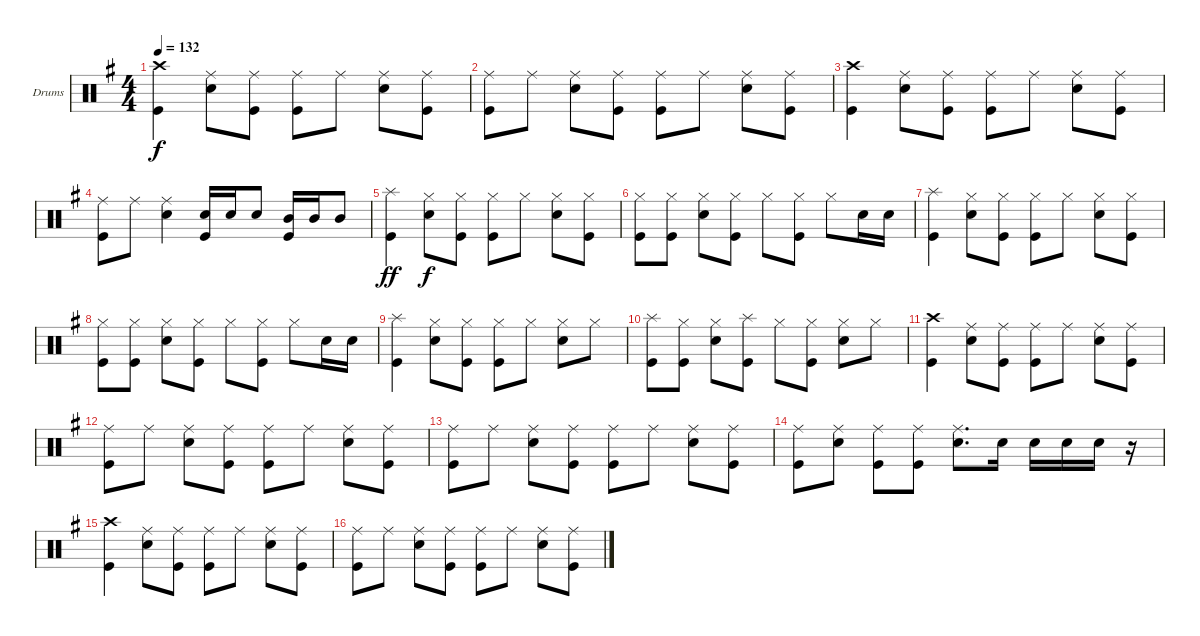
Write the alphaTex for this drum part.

\defaultSystemsLayout 4
\bracketExtendMode groupsimilarinstruments
\firstSystemTrackNameOrientation horizontal
\otherSystemsTrackNameOrientation horizontal
\track ("Drumkit" "Drums") {instrument percussion}
\staff {score}
\articulation defaults
\ts (4 4)
\tempo 132
\clef neutral
\scale
1.08575
\ks g
("Crash high (hit)" "Kick (hit)").4{dy f} ("Ride (middle)" "Snare (hit) 2").8 ("Ride (middle)" "Kick (hit)").8 ("Ride (middle)" "Kick (hit)").8 "Ride (middle)".8 ("Ride (middle)" "Snare (hit) 2").8 ("Ride (middle)" "Kick (hit)").8 |
\scale
0.957125 ("Ride (middle)" "Kick (hit)").8 "Ride (middle)".8 ("Ride (middle)" "Snare (hit) 2").8 ("Ride (middle)" "Kick (hit)").8 ("Ride (middle)" "Kick (hit)").8 "Ride (middle)".8 ("Ride (middle)" "Snare (hit) 2").8 ("Ride (middle)" "Kick (hit)").8 |
\scale
0.957125 ("Crash high (hit)" "Kick (hit)").4 ("Ride (middle)" "Snare (hit) 2").8 ("Ride (middle)" "Kick (hit)").8 ("Ride (middle)" "Kick (hit)").8 "Ride (middle)".8 ("Ride (middle)" "Snare (hit) 2").8 ("Ride (middle)" "Kick (hit)").8 |
\scale
1.08575 ("Ride (middle)" "Kick (hit)").8 "Ride (middle)".8 ("Ride (middle)" "Snare (hit) 2").4 ("Snare (hit) 2" "Kick (hit)").16 "Snare (hit) 2".16 "Snare (hit) 2".8 ("Mid Tom (hit)" "Kick (hit)").16 "Mid Tom (hit)".16 "Mid Tom (hit)".8 |
\scale
0.957125 ("Splash (hit)" "Kick (hit)").4{dy ff} ("Hi-Hat (closed)" "Snare (hit) 2").8{dy f} ("Hi-Hat (closed)" "Kick (hit)").8 ("Hi-Hat (closed)" "Kick (hit)").8 "Hi-Hat (closed)".8 ("Hi-Hat (closed)" "Snare (hit) 2").8 ("Hi-Hat (closed)" "Kick (hit)").8 |
\scale
0.957125 ("Hi-Hat (closed)" "Kick (hit)").8 ("Hi-Hat (closed)" "Kick (hit)").8 ("Hi-Hat (closed)" "Snare (hit) 2").8 ("Hi-Hat (closed)" "Kick (hit)").8 "Hi-Hat (closed)".8 ("Hi-Hat (closed)" "Kick (hit)").8 "Hi-Hat (closed)".8 "Snare (hit) 2".16 "Snare (hit) 2".16 |
\scale
1.08575 ("Splash (hit)" "Kick (hit)").4 ("Hi-Hat (closed)" "Snare (hit) 2").8 ("Hi-Hat (closed)" "Kick (hit)").8 ("Hi-Hat (closed)" "Kick (hit)").8 "Hi-Hat (closed)".8 ("Hi-Hat (closed)" "Snare (hit) 2").8 ("Hi-Hat (closed)" "Kick (hit)").8 |
\scale
0.957125 ("Hi-Hat (closed)" "Kick (hit)").8 ("Hi-Hat (closed)" "Kick (hit)").8 ("Hi-Hat (closed)" "Snare (hit) 2").8 ("Hi-Hat (closed)" "Kick (hit)").8 "Hi-Hat (closed)".8 ("Hi-Hat (closed)" "Kick (hit)").8 "Hi-Hat (closed)".8 "Snare (hit) 2".16 "Snare (hit) 2".16 |
\scale
0.957125 ("Splash (hit)" "Kick (hit)").4 ("Hi-Hat (closed)" "Snare (hit) 2").8 ("Hi-Hat (closed)" "Kick (hit)").8 ("Hi-Hat (closed)" "Kick (hit)").8 "Hi-Hat (closed)".8 ("Hi-Hat (closed)" "Snare (hit) 2").8 "Hi-Hat (closed)".8 |
\scale
1.08575 ("Splash (hit)" "Kick (hit)").8 ("Hi-Hat (closed)" "Kick (hit)").8 ("Hi-Hat (closed)" "Snare (hit) 2").8 ("Splash (hit)" "Kick (hit)").8 "Hi-Hat (closed)".8 ("Hi-Hat (closed)" "Kick (hit)").8 ("Hi-Hat (closed)" "Snare (hit) 2").8 "Hi-Hat (closed)".8 |
\scale
0.957125 ("Crash high (hit)" "Kick (hit)").4 ("Ride (middle)" "Snare (hit) 2").8 ("Ride (middle)" "Kick (hit)").8 ("Ride (middle)" "Kick (hit)").8 "Ride (middle)".8 ("Ride (middle)" "Snare (hit) 2").8 ("Ride (middle)" "Kick (hit)").8 |
\scale
0.957125 ("Ride (middle)" "Kick (hit)").8 "Ride (middle)".8 ("Ride (middle)" "Snare (hit) 2").8 ("Ride (middle)" "Kick (hit)").8 ("Ride (middle)" "Kick (hit)").8 "Ride (middle)".8 ("Ride (middle)" "Snare (hit) 2").8 ("Ride (middle)" "Kick (hit)").8 |
\scale
1.08575 ("Ride (middle)" "Kick (hit)").8 "Ride (middle)".8 ("Ride (middle)" "Snare (hit) 2").8 ("Ride (middle)" "Kick (hit)").8 ("Ride (middle)" "Kick (hit)").8 "Ride (middle)".8 ("Ride (middle)" "Snare (hit) 2").8 ("Ride (middle)" "Kick (hit)").8 |
\scale
0.957125 ("Ride (middle)" "Kick (hit)").8 ("Ride (middle)" "Snare (hit) 2").8 ("Ride (middle)" "Kick (hit)").8 ("Ride (middle)" "Kick (hit)").8 ("Ride (middle)" "Snare (hit) 2").8{d} "Snare (hit) 2".16 "Snare (hit) 2".16 "Snare (hit) 2".16 "Snare (hit) 2".16 r.16 |
\scale
0.957125 ("Crash high (hit)" "Kick (hit)").4 ("Ride (middle)" "Snare (hit) 2").8 ("Ride (middle)" "Kick (hit)").8 ("Ride (middle)" "Kick (hit)").8 "Ride (middle)".8 ("Ride (middle)" "Snare (hit) 2").8 ("Ride (middle)" "Kick (hit)").8 |
\scale
1.08575 ("Ride (middle)" "Kick (hit)").8 "Ride (middle)".8 ("Ride (middle)" "Snare (hit) 2").8 ("Ride (middle)" "Kick (hit)").8 ("Ride (middle)" "Kick (hit)").8 "Ride (middle)".8 ("Ride (middle)" "Snare (hit) 2").8 ("Ride (middle)" "Kick (hit)").8
